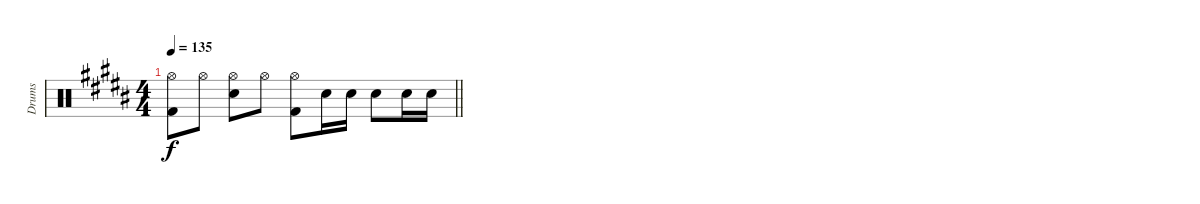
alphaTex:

\track ("Drums" "Drums") {instrument percussion}
\staff {score}
\articulation defaults
\ts (4 4)
\tempo 135
\clef neutral
\barLineRight lightlight
\ks b
("Hi-Hat (open)" "Kick (hit) 2").8{dy f} "Hi-Hat (open)".8 ("Hi-Hat (open)" "Snare (hit) 2").8 "Hi-Hat (open)".8 ("Hi-Hat (open)" "Kick (hit) 2").8 "Snare (hit) 2".16 "Snare (hit) 2".16 "Snare (hit) 2".8 "Snare (hit) 2".16 "Snare (hit) 2".16
